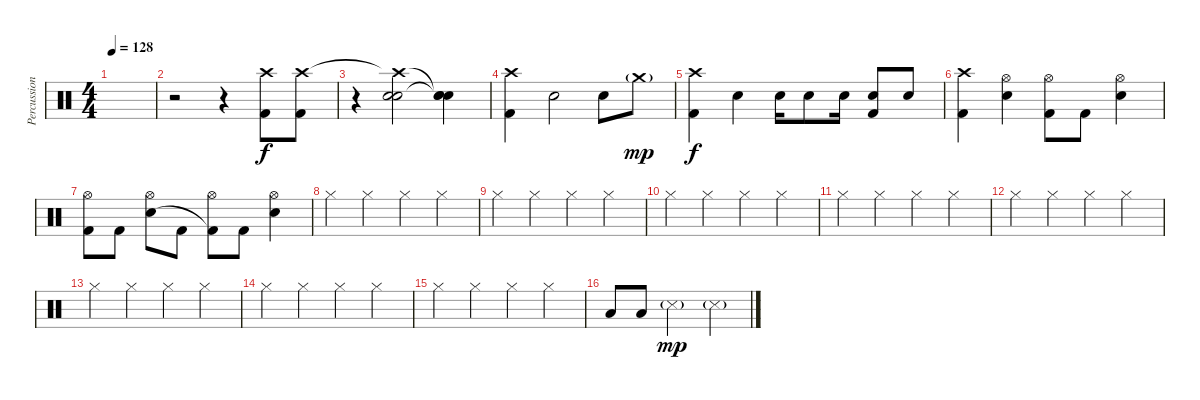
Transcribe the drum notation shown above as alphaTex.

\track ("Percussion" "Percussion") {instrument percussion}
\staff {score}
\articulation defaults
\ts (4 4)
\tempo 128
\clef neutral
\ks c
|
r.2 r.4 ("Crash high (hit)" "Kick (hit) 2").8 ("Crash high (hit)" "Kick (hit) 2").8 |
r.4 ("Crash high (hit)"{t} "Snare (hit) 2" "Snare (hit)").2 ("Snare (hit)"{t} "Snare (hit) 2" "Snare (hit)"{t}).4 |
("Crash high (hit)" "Kick (hit) 2").4 "Snare (hit) 2".2 "Snare (hit) 2".8 "Crash medium (hit)"{g}.8{dy mp} |
("Crash high (hit)" "Kick (hit) 2").4{dy f} "Snare (hit) 2".4 "Snare (hit) 2".16 "Snare (hit) 2".8 "Snare (hit) 2".16 ("Snare (hit) 2" "Kick (hit) 2").8 "Snare (hit) 2".8 |
("Crash high (hit)" "Kick (hit) 2").4 ("Hi-Hat (open)" "Snare (hit) 2").4 ("Hi-Hat (open)" "Kick (hit) 2").8 "Kick (hit) 2".8 ("Hi-Hat (open)" "Snare (hit) 2").4 |
("Hi-Hat (open)" "Kick (hit) 2").8 "Kick (hit) 2".8 ("Hi-Hat (open)" "Snare (hit) 2").8 "Kick (hit) 2".8 ("Hi-Hat (open)" "Kick (hit) 2"{t}).8 "Kick (hit) 2".8 ("Hi-Hat (open)" "Snare (hit) 2").4 |
"Hi-Hat (closed)".4 "Hi-Hat (closed)".4 "Hi-Hat (closed)".4 "Hi-Hat (closed)".4 |
"Hi-Hat (closed)".4 "Hi-Hat (closed)".4 "Hi-Hat (closed)".4 "Hi-Hat (closed)".4 |
"Hi-Hat (closed)".4 "Hi-Hat (closed)".4 "Hi-Hat (closed)".4 "Hi-Hat (closed)".4 |
"Hi-Hat (closed)".4 "Hi-Hat (closed)".4 "Hi-Hat (closed)".4 "Hi-Hat (closed)".4 |
"Hi-Hat (closed)".4 "Hi-Hat (closed)".4 "Hi-Hat (closed)".4 "Hi-Hat (closed)".4 |
"Hi-Hat (closed)".4 "Hi-Hat (closed)".4 "Hi-Hat (closed)".4 "Hi-Hat (closed)".4 |
"Hi-Hat (closed)".4 "Hi-Hat (closed)".4 "Hi-Hat (closed)".4 "Hi-Hat (closed)".4 |
"Hi-Hat (closed)".4 "Hi-Hat (closed)".4 "Hi-Hat (closed)".4 "Hi-Hat (closed)".4 |
"Low Tom (hit)".8 "Low Tom (hit)".8 "Snare (side stick) 3"{g}.2{dy mp} "Snare (side stick) 3"{g}.4
